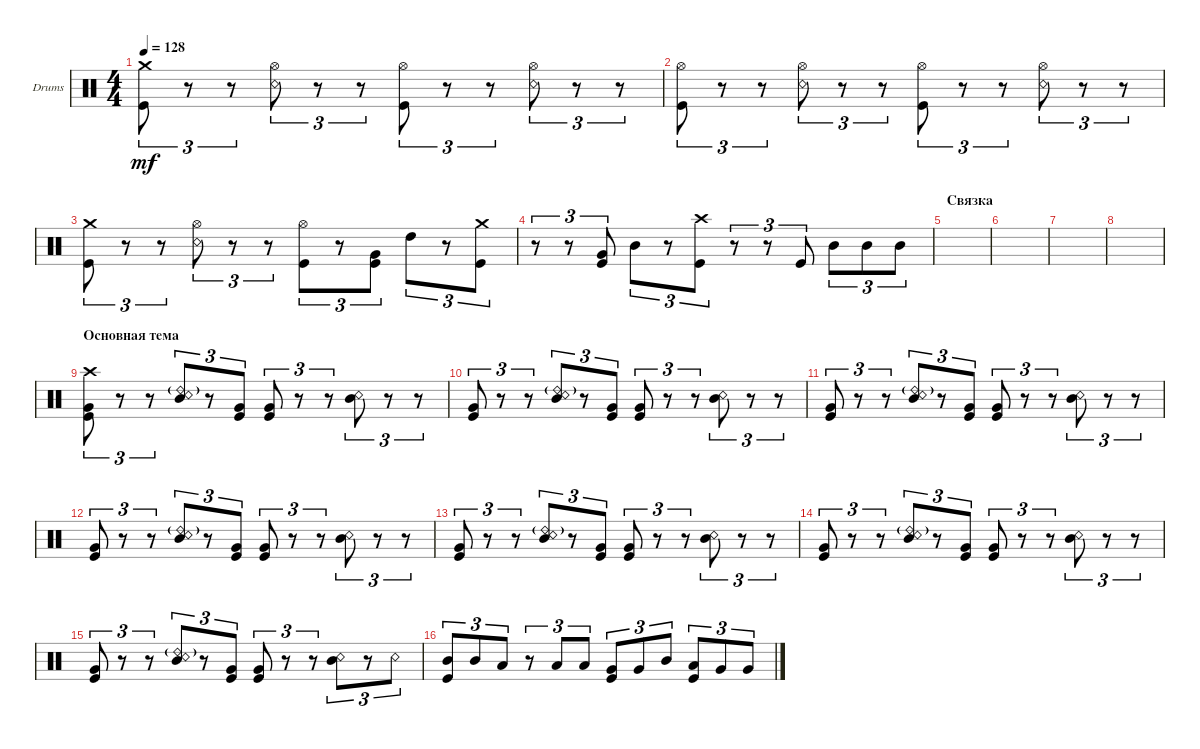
\defaultSystemsLayout 4
\bracketExtendMode groupsimilarinstruments
\firstSystemTrackNameOrientation horizontal
\otherSystemsTrackNameOrientation horizontal
\track ("Drumkit" "Drums") {instrument percussion}
\staff {score}
\articulation defaults
\ts (4 4)
\tempo 128
\clef neutral
\ks c
("Kick (hit)" "Crash medium (hit)").8{tu (3 2) dy mf} r.8{tu (3 2)} r.8{tu (3 2)} ("Snare (rim shot)" "Hi-Hat (open)").8{tu (3 2)} r.8{tu (3 2)} r.8{tu (3 2)} ("Kick (hit)" "Hi-Hat (open)").8{tu (3 2)} r.8{tu (3 2)} r.8{tu (3 2)} ("Snare (rim shot)" "Hi-Hat (open)").8{tu (3 2)} r.8{tu (3 2)} r.8{tu (3 2)} |
("Kick (hit)" "Hi-Hat (open)").8{tu (3 2)} r.8{tu (3 2)} r.8{tu (3 2)} ("Snare (rim shot)" "Hi-Hat (open)").8{tu (3 2)} r.8{tu (3 2)} r.8{tu (3 2)} ("Kick (hit)" "Hi-Hat (open)").8{tu (3 2)} r.8{tu (3 2)} r.8{tu (3 2)} ("Snare (rim shot)" "Hi-Hat (open)").8{tu (3 2)} r.8{tu (3 2)} r.8{tu (3 2)} |
("Kick (hit)" "Crash medium (hit)").8{tu (3 2)} r.8{tu (3 2)} r.8{tu (3 2)} ("Snare (rim shot)" "Hi-Hat (open)").8{tu (3 2)} r.8{tu (3 2)} r.8{tu (3 2)} ("Kick (hit)" "Hi-Hat (open)").8{tu (3 2)} r.8{tu (3 2)} ("Kick (hit)" "Very Low Tom (hit)").8{tu (3 2)} "High Tom (hit)".8{tu (3 2)} r.8{tu (3 2)} ("Kick (hit)" "Crash medium (hit)").8{tu (3 2)} |
r.8{tu (3 2)} r.8{tu (3 2)} ("Kick (hit)" "Very Low Tom (hit)").8{tu (3 2)} "Mid Tom (hit)".8{tu (3 2)} r.8{tu (3 2)} ("Kick (hit)" "Crash high (hit)").8{tu (3 2)} r.8{tu (3 2)} r.8{tu (3 2)} "Kick (hit)".8{tu (3 2)} "Mid Tom (hit)".8{tu (3 2)} "Mid Tom (hit)".8{tu (3 2)} "Mid Tom (hit)".8{tu (3 2)} |
\section ("" "Связка")
|
|
|
|
\section ("" "Основная тема")
("Kick (hit)" "Very Low Tom (hit)" "Crash high (hit)").8{tu (3 2)} r.8{tu (3 2)} r.8{tu (3 2)} ("Snare (rim shot)" "Mid Tom (hit)" "Ride (bell) 2"{g}).8{tu (3 2)} r.8{tu (3 2)} ("Kick (hit)" "Very Low Tom (hit)").8{tu (3 2)} ("Kick (hit)" "Very Low Tom (hit)").8{tu (3 2)} r.8{tu (3 2)} r.8{tu (3 2)} ("Snare (rim shot)" "Mid Tom (hit)").8{tu (3 2)} r.8{tu (3 2)} r.8{tu (3 2)} |
("Kick (hit)" "Very Low Tom (hit)").8{tu (3 2)} r.8{tu (3 2)} r.8{tu (3 2)} ("Snare (rim shot)" "Mid Tom (hit)" "Ride (bell) 2"{g}).8{tu (3 2)} r.8{tu (3 2)} ("Kick (hit)" "Very Low Tom (hit)").8{tu (3 2)} ("Kick (hit)" "Very Low Tom (hit)").8{tu (3 2)} r.8{tu (3 2)} r.8{tu (3 2)} ("Snare (rim shot)" "Mid Tom (hit)").8{tu (3 2)} r.8{tu (3 2)} r.8{tu (3 2)} |
("Kick (hit)" "Very Low Tom (hit)").8{tu (3 2)} r.8{tu (3 2)} r.8{tu (3 2)} ("Snare (rim shot)" "Mid Tom (hit)" "Ride (bell) 2"{g}).8{tu (3 2)} r.8{tu (3 2)} ("Kick (hit)" "Very Low Tom (hit)").8{tu (3 2)} ("Kick (hit)" "Very Low Tom (hit)").8{tu (3 2)} r.8{tu (3 2)} r.8{tu (3 2)} ("Snare (rim shot)" "Mid Tom (hit)").8{tu (3 2)} r.8{tu (3 2)} r.8{tu (3 2)} |
("Kick (hit)" "Very Low Tom (hit)").8{tu (3 2)} r.8{tu (3 2)} r.8{tu (3 2)} ("Snare (rim shot)" "Mid Tom (hit)" "Ride (bell) 2"{g}).8{tu (3 2)} r.8{tu (3 2)} ("Kick (hit)" "Very Low Tom (hit)").8{tu (3 2)} ("Kick (hit)" "Very Low Tom (hit)").8{tu (3 2)} r.8{tu (3 2)} r.8{tu (3 2)} ("Snare (rim shot)" "Mid Tom (hit)").8{tu (3 2)} r.8{tu (3 2)} r.8{tu (3 2)} |
("Kick (hit)" "Very Low Tom (hit)").8{tu (3 2)} r.8{tu (3 2)} r.8{tu (3 2)} ("Snare (rim shot)" "Mid Tom (hit)" "Ride (bell) 2"{g}).8{tu (3 2)} r.8{tu (3 2)} ("Kick (hit)" "Very Low Tom (hit)").8{tu (3 2)} ("Kick (hit)" "Very Low Tom (hit)").8{tu (3 2)} r.8{tu (3 2)} r.8{tu (3 2)} ("Snare (rim shot)" "Mid Tom (hit)").8{tu (3 2)} r.8{tu (3 2)} r.8{tu (3 2)} |
("Kick (hit)" "Very Low Tom (hit)").8{tu (3 2)} r.8{tu (3 2)} r.8{tu (3 2)} ("Snare (rim shot)" "Mid Tom (hit)" "Ride (bell) 2"{g}).8{tu (3 2)} r.8{tu (3 2)} ("Kick (hit)" "Very Low Tom (hit)").8{tu (3 2)} ("Kick (hit)" "Very Low Tom (hit)").8{tu (3 2)} r.8{tu (3 2)} r.8{tu (3 2)} ("Snare (rim shot)" "Mid Tom (hit)").8{tu (3 2)} r.8{tu (3 2)} r.8{tu (3 2)} |
("Kick (hit)" "Very Low Tom (hit)").8{tu (3 2)} r.8{tu (3 2)} r.8{tu (3 2)} ("Snare (rim shot)" "Mid Tom (hit)" "Ride (bell) 2"{g}).8{tu (3 2)} r.8{tu (3 2)} ("Kick (hit)" "Very Low Tom (hit)").8{tu (3 2)} ("Kick (hit)" "Very Low Tom (hit)").8{tu (3 2)} r.8{tu (3 2)} r.8{tu (3 2)} ("Snare (rim shot)" "Mid Tom (hit)").8{tu (3 2)} r.8{tu (3 2)} "Snare (rim shot)".8{tu (3 2)} |
("Mid Tom (hit)" "Kick (hit)").8{tu (3 2)} "Mid Tom (hit)".8{tu (3 2)} "Low Tom (hit)".8{tu (3 2)} r.8{tu (3 2)} "Low Tom (hit)".8{tu (3 2)} "Low Tom (hit)".8{tu (3 2)} ("Very Low Tom (hit)" "Kick (hit)").8{tu (3 2)} "Very Low Tom (hit)".8{tu (3 2)} "Mid Tom (hit)".8{tu (3 2)} ("Low Tom (hit)" "Kick (hit)").8{tu (3 2)} "Very Low Tom (hit)".8{tu (3 2)} "Very Low Tom (hit)".8{tu (3 2)}
